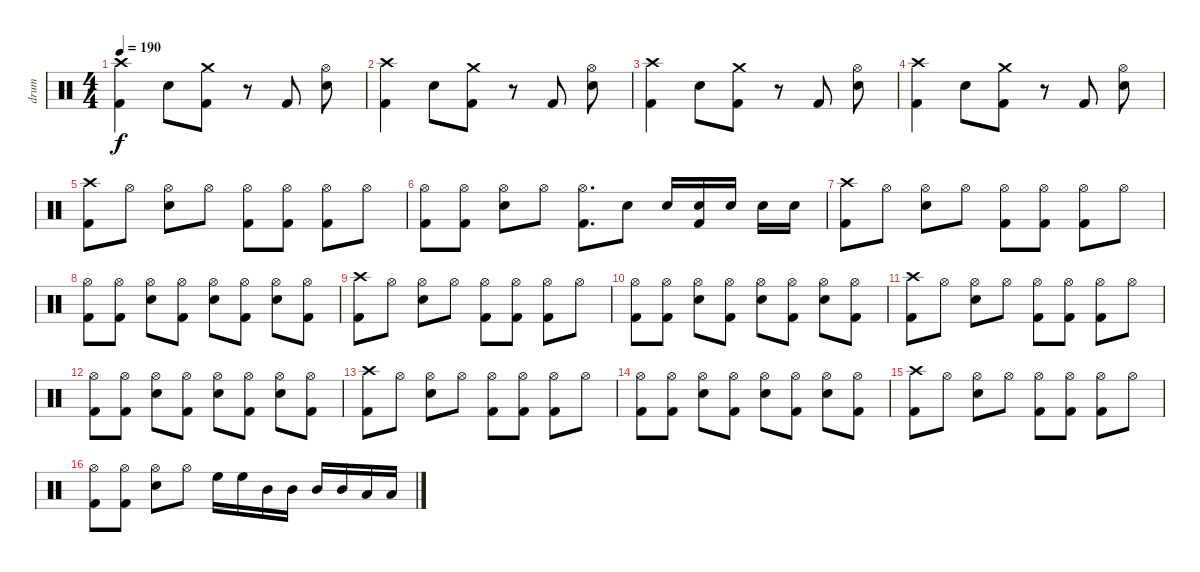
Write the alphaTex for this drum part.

\track ("drum" "drum") {instrument percussion}
\staff {score}
\articulation defaults
\ts (4 4)
\tempo 190
\clef neutral
\ks c
("Crash high (hit)" "Kick (hit) 2").4{dy f} "Snare (hit) 2".8 ("Crash medium (hit)" "Kick (hit) 2").8 r.8 "Kick (hit) 2".8 ("Hi-Hat (open)" "Snare (hit) 2").8 |
("Crash high (hit)" "Kick (hit) 2").4 "Snare (hit) 2".8 ("Crash medium (hit)" "Kick (hit) 2").8 r.8 "Kick (hit) 2".8 ("Hi-Hat (open)" "Snare (hit) 2").8 |
("Crash high (hit)" "Kick (hit) 2").4 "Snare (hit) 2".8 ("Crash medium (hit)" "Kick (hit) 2").8 r.8 "Kick (hit) 2".8 ("Hi-Hat (open)" "Snare (hit) 2").8 |
("Crash high (hit)" "Kick (hit) 2").4 "Snare (hit) 2".8 ("Crash medium (hit)" "Kick (hit) 2").8 r.8 "Kick (hit) 2".8 ("Hi-Hat (open)" "Snare (hit) 2").8 |
("Crash high (hit)" "Kick (hit) 2").8{volume 16} "Hi-Hat (open)".8 ("Hi-Hat (open)" "Snare (hit) 2").8 "Hi-Hat (open)".8 ("Hi-Hat (open)" "Kick (hit) 2").8 ("Hi-Hat (open)" "Kick (hit) 2").8 ("Hi-Hat (open)" "Kick (hit) 2").8 "Hi-Hat (open)".8 |
("Hi-Hat (open)" "Kick (hit) 2").8 ("Hi-Hat (open)" "Kick (hit) 2").8 ("Hi-Hat (open)" "Snare (hit) 2").8 "Hi-Hat (open)".8 ("Hi-Hat (open)" "Kick (hit) 2").8{d} "Snare (hit) 2".8 "Snare (hit) 2".16 ("Snare (hit) 2" "Kick (hit) 2").16 "Snare (hit) 2".16 "Snare (hit) 2".16 "Snare (hit) 2".16 |
("Crash high (hit)" "Kick (hit) 2").8{volume 16} "Hi-Hat (open)".8 ("Hi-Hat (open)" "Snare (hit) 2").8 "Hi-Hat (open)".8 ("Hi-Hat (open)" "Kick (hit) 2").8 ("Hi-Hat (open)" "Kick (hit) 2").8 ("Hi-Hat (open)" "Kick (hit) 2").8 "Hi-Hat (open)".8 |
("Hi-Hat (open)" "Kick (hit) 2").8 ("Hi-Hat (open)" "Kick (hit) 2").8 ("Hi-Hat (open)" "Snare (hit) 2").8 ("Hi-Hat (open)" "Kick (hit) 2").8 ("Hi-Hat (open)" "Snare (hit) 2").8 ("Hi-Hat (open)" "Kick (hit) 2").8 ("Hi-Hat (open)" "Snare (hit) 2").8 ("Hi-Hat (open)" "Kick (hit) 2").8 |
("Crash high (hit)" "Kick (hit) 2").8{volume 16} "Hi-Hat (open)".8 ("Hi-Hat (open)" "Snare (hit) 2").8 "Hi-Hat (open)".8 ("Hi-Hat (open)" "Kick (hit) 2").8 ("Hi-Hat (open)" "Kick (hit) 2").8 ("Hi-Hat (open)" "Kick (hit) 2").8 "Hi-Hat (open)".8 |
("Hi-Hat (open)" "Kick (hit) 2").8 ("Hi-Hat (open)" "Kick (hit) 2").8 ("Hi-Hat (open)" "Snare (hit) 2").8 ("Hi-Hat (open)" "Kick (hit) 2").8 ("Hi-Hat (open)" "Snare (hit) 2").8 ("Hi-Hat (open)" "Kick (hit) 2").8 ("Hi-Hat (open)" "Snare (hit) 2").8 ("Hi-Hat (open)" "Kick (hit) 2").8 |
("Crash high (hit)" "Kick (hit) 2").8{volume 16} "Hi-Hat (open)".8 ("Hi-Hat (open)" "Snare (hit) 2").8 "Hi-Hat (open)".8 ("Hi-Hat (open)" "Kick (hit) 2").8 ("Hi-Hat (open)" "Kick (hit) 2").8 ("Hi-Hat (open)" "Kick (hit) 2").8 "Hi-Hat (open)".8 |
("Hi-Hat (open)" "Kick (hit) 2").8 ("Hi-Hat (open)" "Kick (hit) 2").8 ("Hi-Hat (open)" "Snare (hit) 2").8 ("Hi-Hat (open)" "Kick (hit) 2").8 ("Hi-Hat (open)" "Snare (hit) 2").8 ("Hi-Hat (open)" "Kick (hit) 2").8 ("Hi-Hat (open)" "Snare (hit) 2").8 ("Hi-Hat (open)" "Kick (hit) 2").8 |
("Crash high (hit)" "Kick (hit) 2").8{volume 16} "Hi-Hat (open)".8 ("Hi-Hat (open)" "Snare (hit) 2").8 "Hi-Hat (open)".8 ("Hi-Hat (open)" "Kick (hit) 2").8 ("Hi-Hat (open)" "Kick (hit) 2").8 ("Hi-Hat (open)" "Kick (hit) 2").8 "Hi-Hat (open)".8 |
("Hi-Hat (open)" "Kick (hit) 2").8 ("Hi-Hat (open)" "Kick (hit) 2").8 ("Hi-Hat (open)" "Snare (hit) 2").8 ("Hi-Hat (open)" "Kick (hit) 2").8 ("Hi-Hat (open)" "Snare (hit) 2").8 ("Hi-Hat (open)" "Kick (hit) 2").8 ("Hi-Hat (open)" "Snare (hit) 2").8 ("Hi-Hat (open)" "Kick (hit) 2").8 |
("Crash high (hit)" "Kick (hit) 2").8{volume 16} "Hi-Hat (open)".8 ("Hi-Hat (open)" "Snare (hit) 2").8 "Hi-Hat (open)".8 ("Hi-Hat (open)" "Kick (hit) 2").8 ("Hi-Hat (open)" "Kick (hit) 2").8 ("Hi-Hat (open)" "Kick (hit) 2").8 "Hi-Hat (open)".8 |
("Hi-Hat (open)" "Kick (hit) 2").8 ("Hi-Hat (open)" "Kick (hit) 2").8 ("Hi-Hat (open)" "Snare (hit) 2").8 "Hi-Hat (open)".8 "High Floor Tom (hit)".16 "High Floor Tom (hit)".16 "Mid Tom (hit)".16 "Mid Tom (hit)".16 "Mid Tom (hit)".16 "Mid Tom (hit)".16 "Low Tom (hit)".16 "Low Tom (hit)".16
